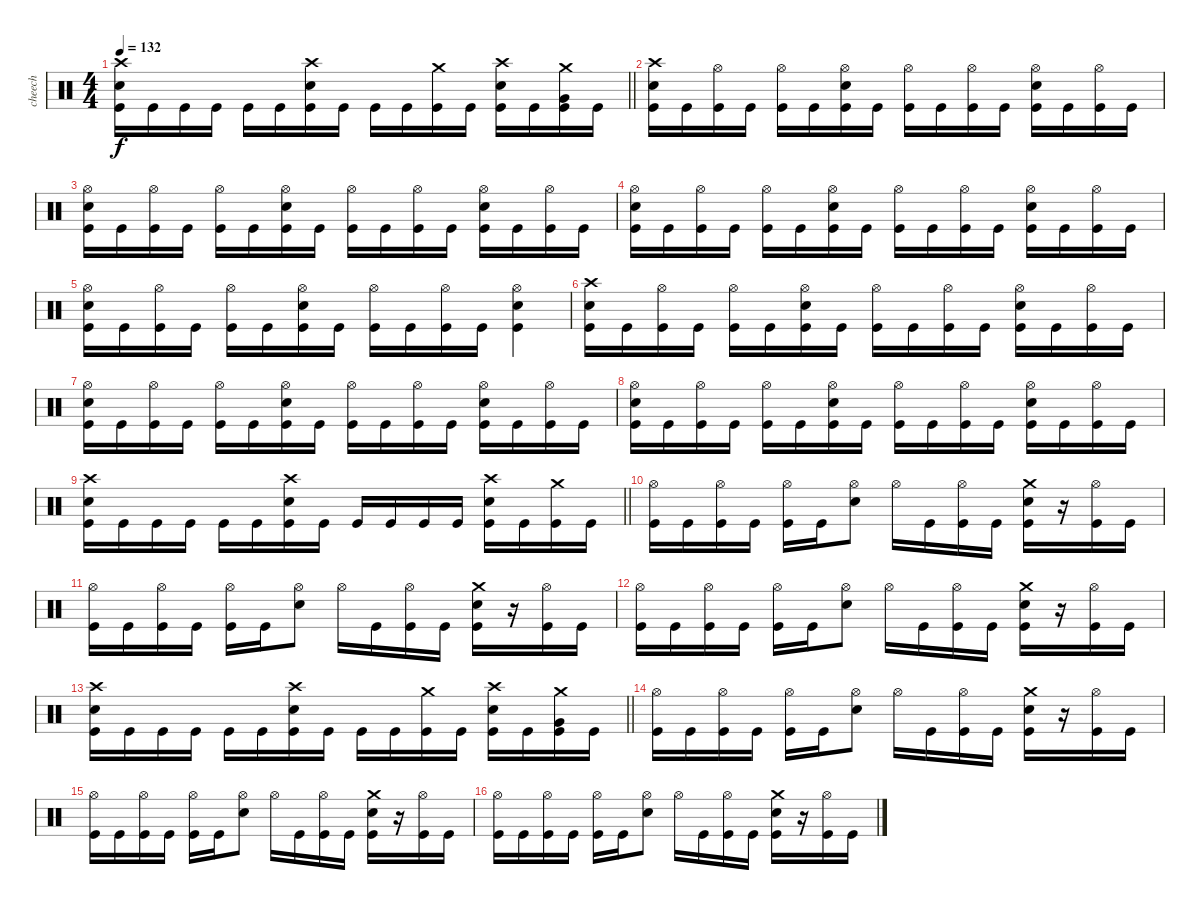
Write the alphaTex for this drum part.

\track ("cheech" "cheech") {instrument percussion}
\staff {score}
\articulation defaults
\ts (4 4)
\tempo 132
\clef neutral
\barLineRight lightlight
\ks c
("Crash high (hit)" "Electric Snare (hit)" "Kick (hit)").16{dy f} "Kick (hit)".16 "Kick (hit)".16 "Kick (hit)".16 "Kick (hit)".16 "Kick (hit)".16 ("Crash high (hit)" "Electric Snare (hit)" "Kick (hit)").16 "Kick (hit)".16 "Kick (hit)".16 "Kick (hit)".16 ("Crash medium (hit)" "Kick (hit)").16 "Kick (hit)".16 ("Crash high (hit)" "Electric Snare (hit)" "Kick (hit)").16 "Kick (hit)".16 ("Crash medium (hit)" "Very Low Tom (hit)" "Kick (hit)").16 "Kick (hit)".16 |
("Crash high (hit)" "Electric Snare (hit)" "Kick (hit)").16 "Kick (hit)".16 ("Hi-Hat (open)" "Kick (hit)").16 "Kick (hit)".16 ("Hi-Hat (open)" "Kick (hit)").16 "Kick (hit)".16 ("Hi-Hat (open)" "Electric Snare (hit)" "Kick (hit)").16 "Kick (hit)".16 ("Hi-Hat (open)" "Kick (hit)").16 "Kick (hit)".16 ("Hi-Hat (open)" "Kick (hit)").16 "Kick (hit)".16 ("Hi-Hat (open)" "Electric Snare (hit)" "Kick (hit)").16 "Kick (hit)".16 ("Hi-Hat (open)" "Kick (hit)").16 "Kick (hit)".16 |
("Hi-Hat (open)" "Electric Snare (hit)" "Kick (hit)").16 "Kick (hit)".16 ("Hi-Hat (open)" "Kick (hit)").16 "Kick (hit)".16 ("Hi-Hat (open)" "Kick (hit)").16 "Kick (hit)".16 ("Hi-Hat (open)" "Electric Snare (hit)" "Kick (hit)").16 "Kick (hit)".16 ("Hi-Hat (open)" "Kick (hit)").16 "Kick (hit)".16 ("Hi-Hat (open)" "Kick (hit)").16 "Kick (hit)".16 ("Hi-Hat (open)" "Electric Snare (hit)" "Kick (hit)").16 "Kick (hit)".16 ("Hi-Hat (open)" "Kick (hit)").16 "Kick (hit)".16 |
("Hi-Hat (open)" "Electric Snare (hit)" "Kick (hit)").16 "Kick (hit)".16 ("Hi-Hat (open)" "Kick (hit)").16 "Kick (hit)".16 ("Hi-Hat (open)" "Kick (hit)").16 "Kick (hit)".16 ("Hi-Hat (open)" "Electric Snare (hit)" "Kick (hit)").16 "Kick (hit)".16 ("Hi-Hat (open)" "Kick (hit)").16 "Kick (hit)".16 ("Hi-Hat (open)" "Kick (hit)").16 "Kick (hit)".16 ("Hi-Hat (open)" "Electric Snare (hit)" "Kick (hit)").16 "Kick (hit)".16 ("Hi-Hat (open)" "Kick (hit)").16 "Kick (hit)".16 |
("Hi-Hat (open)" "Electric Snare (hit)" "Kick (hit)").16 "Kick (hit)".16 ("Hi-Hat (open)" "Kick (hit)").16 "Kick (hit)".16 ("Hi-Hat (open)" "Kick (hit)").16 "Kick (hit)".16 ("Hi-Hat (open)" "Electric Snare (hit)" "Kick (hit)").16 "Kick (hit)".16 ("Hi-Hat (open)" "Kick (hit)").16 "Kick (hit)".16 ("Hi-Hat (open)" "Kick (hit)").16 "Kick (hit)".16 ("Hi-Hat (open)" "Electric Snare (hit)" "Kick (hit)").4 |
("Crash high (hit)" "Electric Snare (hit)" "Kick (hit)").16 "Kick (hit)".16 ("Hi-Hat (open)" "Kick (hit)").16 "Kick (hit)".16 ("Hi-Hat (open)" "Kick (hit)").16 "Kick (hit)".16 ("Hi-Hat (open)" "Electric Snare (hit)" "Kick (hit)").16 "Kick (hit)".16 ("Hi-Hat (open)" "Kick (hit)").16 "Kick (hit)".16 ("Hi-Hat (open)" "Kick (hit)").16 "Kick (hit)".16 ("Hi-Hat (open)" "Electric Snare (hit)" "Kick (hit)").16 "Kick (hit)".16 ("Hi-Hat (open)" "Kick (hit)").16 "Kick (hit)".16 |
("Hi-Hat (open)" "Electric Snare (hit)" "Kick (hit)").16 "Kick (hit)".16 ("Hi-Hat (open)" "Kick (hit)").16 "Kick (hit)".16 ("Hi-Hat (open)" "Kick (hit)").16 "Kick (hit)".16 ("Hi-Hat (open)" "Electric Snare (hit)" "Kick (hit)").16 "Kick (hit)".16 ("Hi-Hat (open)" "Kick (hit)").16 "Kick (hit)".16 ("Hi-Hat (open)" "Kick (hit)").16 "Kick (hit)".16 ("Hi-Hat (open)" "Electric Snare (hit)" "Kick (hit)").16 "Kick (hit)".16 ("Hi-Hat (open)" "Kick (hit)").16 "Kick (hit)".16 |
("Hi-Hat (open)" "Electric Snare (hit)" "Kick (hit)").16 "Kick (hit)".16 ("Hi-Hat (open)" "Kick (hit)").16 "Kick (hit)".16 ("Hi-Hat (open)" "Kick (hit)").16 "Kick (hit)".16 ("Hi-Hat (open)" "Electric Snare (hit)" "Kick (hit)").16 "Kick (hit)".16 ("Hi-Hat (open)" "Kick (hit)").16 "Kick (hit)".16 ("Hi-Hat (open)" "Kick (hit)").16 "Kick (hit)".16 ("Hi-Hat (open)" "Electric Snare (hit)" "Kick (hit)").16 "Kick (hit)".16 ("Hi-Hat (open)" "Kick (hit)").16 "Kick (hit)".16 |
\barLineRight lightlight
("Crash high (hit)" "Electric Snare (hit)" "Kick (hit)").16 "Kick (hit)".16 "Kick (hit)".16 "Kick (hit)".16 "Kick (hit)".16 "Kick (hit)".16 ("Crash high (hit)" "Electric Snare (hit)" "Kick (hit)").16 "Kick (hit)".16 "Kick (hit)".16 "Kick (hit)".16 "Kick (hit)".16 "Kick (hit)".16 ("Crash high (hit)" "Electric Snare (hit)" "Kick (hit)").16 "Kick (hit)".16 ("Crash medium (hit)" "Kick (hit)").16 "Kick (hit)".16 |
("Hi-Hat (open)" "Kick (hit)").16 "Kick (hit)".16 ("Hi-Hat (open)" "Kick (hit)").16 "Kick (hit)".16 ("Hi-Hat (open)" "Kick (hit)").16 "Kick (hit)".16 ("Hi-Hat (open)" "Electric Snare (hit)").8 "Hi-Hat (open)".16 "Kick (hit)".16 ("Hi-Hat (open)" "Kick (hit)").16 "Kick (hit)".16 ("Crash medium (hit)" "Electric Snare (hit)" "Kick (hit)").16 r.16 ("Hi-Hat (open)" "Kick (hit)").16 "Kick (hit)".16 |
("Hi-Hat (open)" "Kick (hit)").16 "Kick (hit)".16 ("Hi-Hat (open)" "Kick (hit)").16 "Kick (hit)".16 ("Hi-Hat (open)" "Kick (hit)").16 "Kick (hit)".16 ("Hi-Hat (open)" "Electric Snare (hit)").8 "Hi-Hat (open)".16 "Kick (hit)".16 ("Hi-Hat (open)" "Kick (hit)").16 "Kick (hit)".16 ("Crash medium (hit)" "Electric Snare (hit)" "Kick (hit)").16 r.16 ("Hi-Hat (open)" "Kick (hit)").16 "Kick (hit)".16 |
("Hi-Hat (open)" "Kick (hit)").16 "Kick (hit)".16 ("Hi-Hat (open)" "Kick (hit)").16 "Kick (hit)".16 ("Hi-Hat (open)" "Kick (hit)").16 "Kick (hit)".16 ("Hi-Hat (open)" "Electric Snare (hit)").8 "Hi-Hat (open)".16 "Kick (hit)".16 ("Hi-Hat (open)" "Kick (hit)").16 "Kick (hit)".16 ("Crash medium (hit)" "Electric Snare (hit)" "Kick (hit)").16 r.16 ("Hi-Hat (open)" "Kick (hit)").16 "Kick (hit)".16 |
\barLineRight lightlight
("Crash high (hit)" "Electric Snare (hit)" "Kick (hit)").16 "Kick (hit)".16 "Kick (hit)".16 "Kick (hit)".16 "Kick (hit)".16 "Kick (hit)".16 ("Crash high (hit)" "Electric Snare (hit)" "Kick (hit)").16 "Kick (hit)".16 "Kick (hit)".16 "Kick (hit)".16 ("Crash medium (hit)" "Kick (hit)").16 "Kick (hit)".16 ("Crash high (hit)" "Electric Snare (hit)" "Kick (hit)").16 "Kick (hit)".16 ("Crash medium (hit)" "Very Low Tom (hit)" "Kick (hit)").16 "Kick (hit)".16 |
("Hi-Hat (open)" "Kick (hit)").16 "Kick (hit)".16 ("Hi-Hat (open)" "Kick (hit)").16 "Kick (hit)".16 ("Hi-Hat (open)" "Kick (hit)").16 "Kick (hit)".16 ("Hi-Hat (open)" "Electric Snare (hit)").8 "Hi-Hat (open)".16 "Kick (hit)".16 ("Hi-Hat (open)" "Kick (hit)").16 "Kick (hit)".16 ("Crash medium (hit)" "Electric Snare (hit)" "Kick (hit)").16 r.16 ("Hi-Hat (open)" "Kick (hit)").16 "Kick (hit)".16 |
("Hi-Hat (open)" "Kick (hit)").16 "Kick (hit)".16 ("Hi-Hat (open)" "Kick (hit)").16 "Kick (hit)".16 ("Hi-Hat (open)" "Kick (hit)").16 "Kick (hit)".16 ("Hi-Hat (open)" "Electric Snare (hit)").8 "Hi-Hat (open)".16 "Kick (hit)".16 ("Hi-Hat (open)" "Kick (hit)").16 "Kick (hit)".16 ("Crash medium (hit)" "Electric Snare (hit)" "Kick (hit)").16 r.16 ("Hi-Hat (open)" "Kick (hit)").16 "Kick (hit)".16 |
("Hi-Hat (open)" "Kick (hit)").16 "Kick (hit)".16 ("Hi-Hat (open)" "Kick (hit)").16 "Kick (hit)".16 ("Hi-Hat (open)" "Kick (hit)").16 "Kick (hit)".16 ("Hi-Hat (open)" "Electric Snare (hit)").8 "Hi-Hat (open)".16 "Kick (hit)".16 ("Hi-Hat (open)" "Kick (hit)").16 "Kick (hit)".16 ("Crash medium (hit)" "Electric Snare (hit)" "Kick (hit)").16 r.16 ("Hi-Hat (open)" "Kick (hit)").16 "Kick (hit)".16
